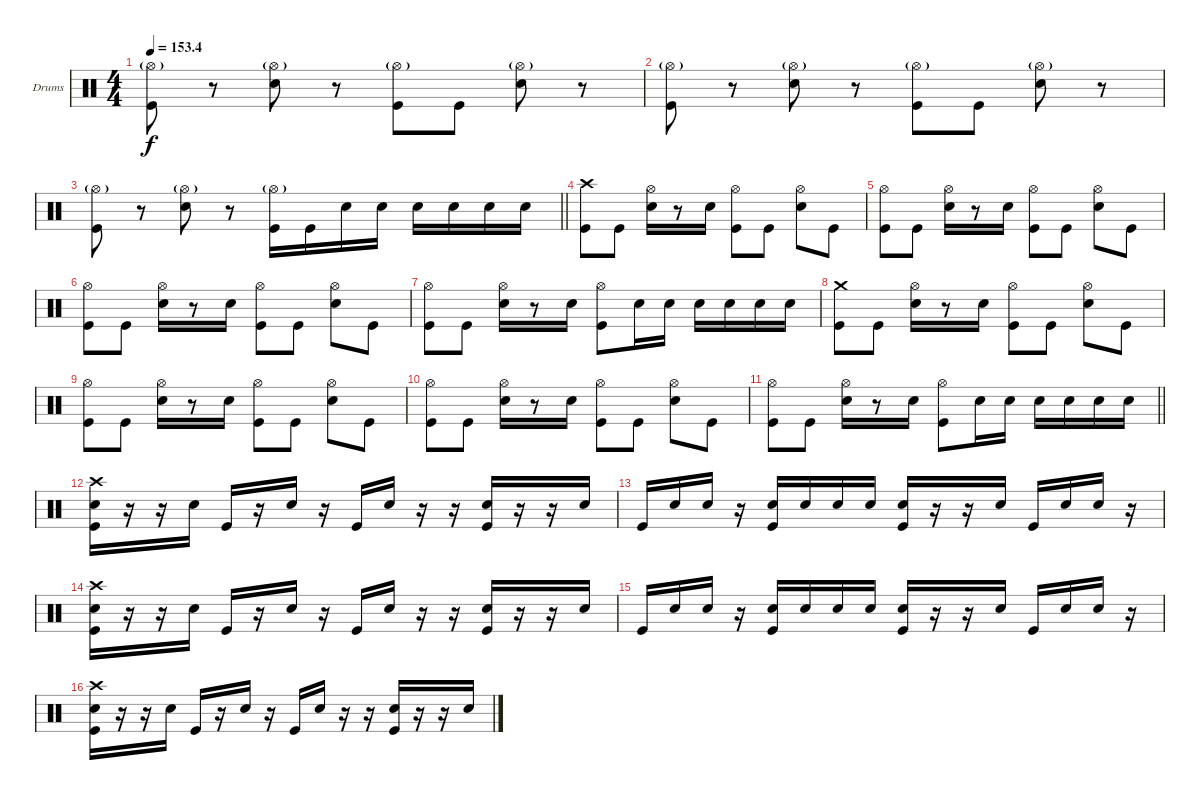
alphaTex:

\bracketExtendMode groupsimilarinstruments
\firstSystemTrackNameOrientation horizontal
\otherSystemsTrackNameOrientation horizontal
\track ("Drumkit" "Drums") {instrument percussion}
\staff {score}
\articulation defaults
\ts (4 4)
\tempo
153.4
\accidentals auto
\clef neutral
\ottava regular
\simile none
\ks c
("Hi-Hat (open)"{g} "Kick (hit)").8{dy f} r.8 ("Hi-Hat (open)"{g} "Snare (hit) 2").8 r.8 ("Hi-Hat (open)"{g} "Kick (hit)").8 "Kick (hit)".8 ("Hi-Hat (open)"{g} "Snare (hit) 2").8 r.8 |
("Hi-Hat (open)"{g} "Kick (hit)").8 r.8 ("Hi-Hat (open)"{g} "Snare (hit) 2").8 r.8 ("Hi-Hat (open)"{g} "Kick (hit)").8 "Kick (hit)".8 ("Hi-Hat (open)"{g} "Snare (hit) 2").8 r.8 |
\barLineRight lightlight
("Hi-Hat (open)"{g} "Kick (hit)").8 r.8 ("Hi-Hat (open)"{g} "Snare (hit) 2").8 r.8 ("Hi-Hat (open)"{g} "Kick (hit)").16 "Kick (hit)".16 "Snare (hit) 2".16 "Snare (hit) 2".16 "Snare (hit) 2".16 "Snare (hit) 2".16 "Snare (hit) 2".16 "Snare (hit) 2".16 |
("Crash high (hit)" "Kick (hit)").8 "Kick (hit)".8 ("Hi-Hat (open)" "Snare (hit) 2").16 r.8 "Snare (hit) 2".16 ("Hi-Hat (open)" "Kick (hit)").8 "Kick (hit)".8 ("Hi-Hat (open)" "Snare (hit) 2").8 "Kick (hit)".8 |
("Hi-Hat (open)" "Kick (hit)").8 "Kick (hit)".8 ("Hi-Hat (open)" "Snare (hit) 2").16 r.8 "Snare (hit) 2".16 ("Hi-Hat (open)" "Kick (hit)").8 "Kick (hit)".8 ("Hi-Hat (open)" "Snare (hit) 2").8 "Kick (hit)".8 |
("Hi-Hat (open)" "Kick (hit)").8 "Kick (hit)".8 ("Hi-Hat (open)" "Snare (hit) 2").16 r.8 "Snare (hit) 2".16 ("Hi-Hat (open)" "Kick (hit)").8 "Kick (hit)".8 ("Hi-Hat (open)" "Snare (hit) 2").8 "Kick (hit)".8 |
("Hi-Hat (open)" "Kick (hit)").8 "Kick (hit)".8 ("Hi-Hat (open)" "Snare (hit) 2").16 r.8 "Snare (hit) 2".16 ("Hi-Hat (open)" "Kick (hit)").8 "Snare (hit) 2".16 "Snare (hit) 2".16 "Snare (hit) 2".16 "Snare (hit) 2".16 "Snare (hit) 2".16 "Snare (hit) 2".16 |
("Crash medium (hit)" "Kick (hit)").8 "Kick (hit)".8 ("Hi-Hat (open)" "Snare (hit) 2").16 r.8 "Snare (hit) 2".16 ("Hi-Hat (open)" "Kick (hit)").8 "Kick (hit)".8 ("Hi-Hat (open)" "Snare (hit) 2").8 "Kick (hit)".8 |
("Hi-Hat (open)" "Kick (hit)").8 "Kick (hit)".8 ("Hi-Hat (open)" "Snare (hit) 2").16 r.8 "Snare (hit) 2".16 ("Hi-Hat (open)" "Kick (hit)").8 "Kick (hit)".8 ("Hi-Hat (open)" "Snare (hit) 2").8 "Kick (hit)".8 |
("Hi-Hat (open)" "Kick (hit)").8 "Kick (hit)".8 ("Hi-Hat (open)" "Snare (hit) 2").16 r.8 "Snare (hit) 2".16 ("Hi-Hat (open)" "Kick (hit)").8 "Kick (hit)".8 ("Hi-Hat (open)" "Snare (hit) 2").8 "Kick (hit)".8 |
\barLineRight lightlight
("Hi-Hat (open)" "Kick (hit)").8 "Kick (hit)".8 ("Hi-Hat (open)" "Snare (hit) 2").16 r.8 "Snare (hit) 2".16 ("Hi-Hat (open)" "Kick (hit)").8 "Snare (hit) 2".16 "Snare (hit) 2".16 "Snare (hit) 2".16 "Snare (hit) 2".16 "Snare (hit) 2".16 "Snare (hit) 2".16 |
("Crash high (hit)" "Snare (hit) 2" "Kick (hit)").16 r.16 r.16 "Snare (hit) 2".16 "Kick (hit)".16 r.16 "Snare (hit) 2".16 r.16 "Kick (hit)".16 "Snare (hit) 2".16 r.16 r.16 ("Snare (hit) 2" "Kick (hit)").16 r.16 r.16 "Snare (hit) 2".16 |
"Kick (hit)".16 "Snare (hit) 2".16 "Snare (hit) 2".16 r.16 ("Snare (hit) 2" "Kick (hit)").16 "Snare (hit) 2".16 "Snare (hit) 2".16 "Snare (hit) 2".16 ("Snare (hit) 2" "Kick (hit)").16 r.16 r.16 "Snare (hit) 2".16 "Kick (hit)".16 "Snare (hit) 2".16 "Snare (hit) 2".16 r.16 |
("Crash high (hit)" "Snare (hit) 2" "Kick (hit)").16 r.16 r.16 "Snare (hit) 2".16 "Kick (hit)".16 r.16 "Snare (hit) 2".16 r.16 "Kick (hit)".16 "Snare (hit) 2".16 r.16 r.16 ("Snare (hit) 2" "Kick (hit)").16 r.16 r.16 "Snare (hit) 2".16 |
"Kick (hit)".16 "Snare (hit) 2".16 "Snare (hit) 2".16 r.16 ("Snare (hit) 2" "Kick (hit)").16 "Snare (hit) 2".16 "Snare (hit) 2".16 "Snare (hit) 2".16 ("Snare (hit) 2" "Kick (hit)").16 r.16 r.16 "Snare (hit) 2".16 "Kick (hit)".16 "Snare (hit) 2".16 "Snare (hit) 2".16 r.16 |
("Crash high (hit)" "Snare (hit) 2" "Kick (hit)").16 r.16 r.16 "Snare (hit) 2".16 "Kick (hit)".16 r.16 "Snare (hit) 2".16 r.16 "Kick (hit)".16 "Snare (hit) 2".16 r.16 r.16 ("Snare (hit) 2" "Kick (hit)").16 r.16 r.16 "Snare (hit) 2".16
